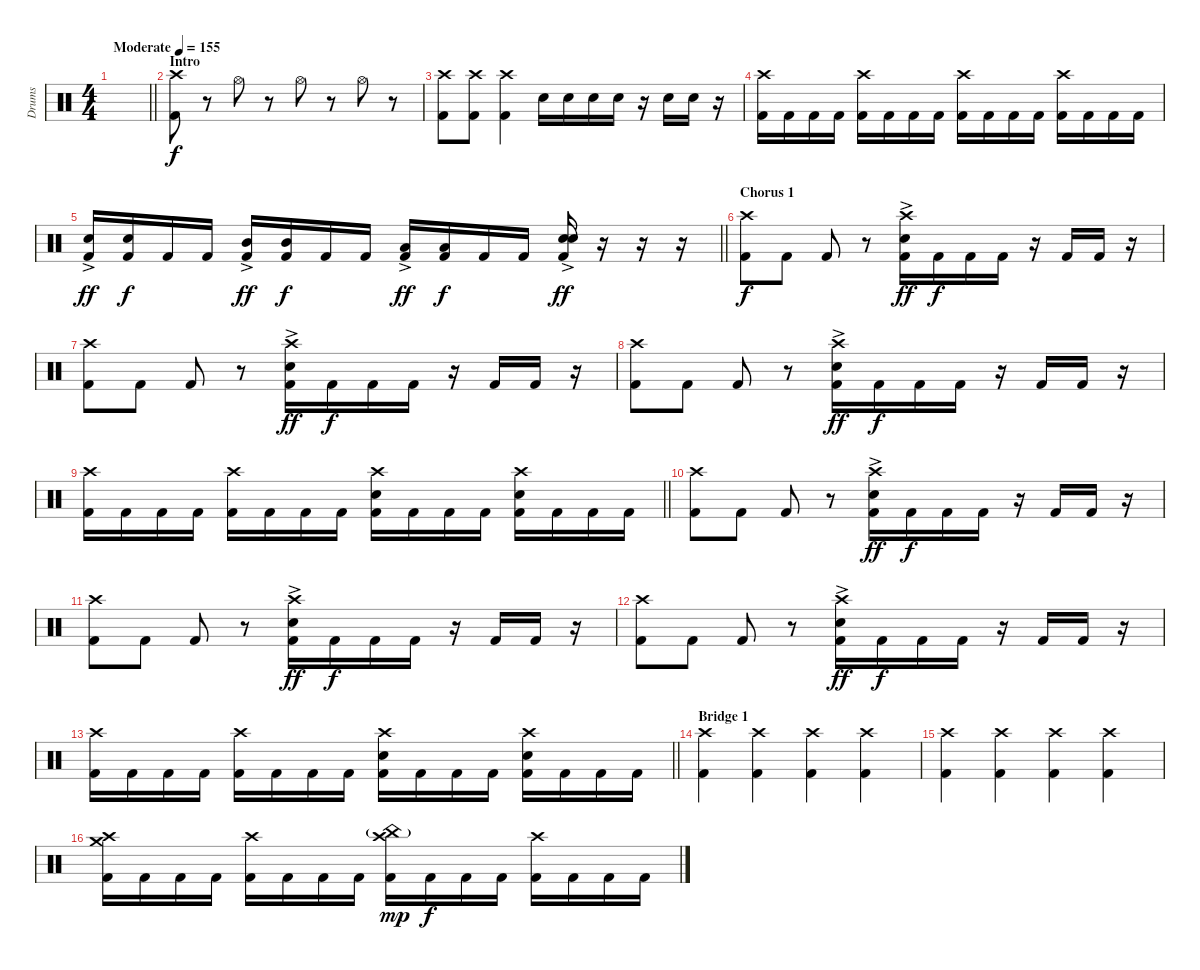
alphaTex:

\track ("Drums" "Drums") {instrument percussion}
\staff {score}
\articulation defaults
\ts (4 4)
\tempo (155 "Moderate")
\clef neutral
\barLineRight lightlight
\ks c
|
\section ("" "Intro")
("Crash high (hit)" "Kick (hit) 2").8 r.8 "Hi-Hat (open)".8 r.8 "Hi-Hat (open)".8 r.8 "Hi-Hat (open)".8 r.8 |
("Crash high (hit)" "Kick (hit) 2").8 ("Crash high (hit)" "Kick (hit) 2").8 ("Crash high (hit)" "Kick (hit) 2").4 "Snare (hit) 2".16 "Snare (hit) 2".16 "Snare (hit) 2".16 "Snare (hit) 2".16 r.16 "Snare (hit) 2".16 "Snare (hit) 2".16 r.16 |
("Crash high (hit)" "Kick (hit) 2").16 "Kick (hit) 2".16 "Kick (hit) 2".16 "Kick (hit) 2".16 ("Crash high (hit)" "Kick (hit) 2").16 "Kick (hit) 2".16 "Kick (hit) 2".16 "Kick (hit) 2".16 ("Crash high (hit)" "Kick (hit) 2").16 "Kick (hit) 2".16 "Kick (hit) 2".16 "Kick (hit) 2".16 ("Crash high (hit)" "Kick (hit) 2").16 "Kick (hit) 2".16 "Kick (hit) 2".16 "Kick (hit) 2".16 |
\barLineRight lightlight
("Snare (hit) 2"{ac} "Kick (hit) 2").16{dy ff} ("Snare (hit) 2" "Kick (hit) 2").16{dy f} "Kick (hit) 2".16 "Kick (hit) 2".16 ("Mid Tom (hit)"{ac} "Kick (hit) 2").16{dy ff} ("Mid Tom (hit)" "Kick (hit) 2").16{dy f} "Kick (hit) 2".16 "Kick (hit) 2".16 ("Low Tom (hit)"{ac} "Kick (hit) 2").16{dy ff} ("Low Tom (hit)" "Kick (hit) 2").16{dy f} "Kick (hit) 2".16 "Kick (hit) 2".16 ("Snare (hit) 2"{ac} "Snare (hit) 2" "Kick (hit) 2").16{dy ff} r.16 r.16 r.16 |
\section ("" "Chorus 1")
("Crash high (hit)" "Kick (hit) 2").8{dy f} "Kick (hit) 2".8 "Kick (hit) 2".8 r.8 ("Crash high (hit)" "Snare (hit) 2"{ac} "Kick (hit) 2").16{dy ff} "Kick (hit) 2".16{dy f} "Kick (hit) 2".16 "Kick (hit) 2".16 r.16 "Kick (hit) 2".16 "Kick (hit) 2".16 r.16 |
("Crash high (hit)" "Kick (hit) 2").8 "Kick (hit) 2".8 "Kick (hit) 2".8 r.8 ("Crash high (hit)" "Snare (hit) 2"{ac} "Kick (hit) 2").16{dy ff} "Kick (hit) 2".16{dy f} "Kick (hit) 2".16 "Kick (hit) 2".16 r.16 "Kick (hit) 2".16 "Kick (hit) 2".16 r.16 |
("Crash high (hit)" "Kick (hit) 2").8 "Kick (hit) 2".8 "Kick (hit) 2".8 r.8 ("Crash high (hit)" "Snare (hit) 2"{ac} "Kick (hit) 2").16{dy ff} "Kick (hit) 2".16{dy f} "Kick (hit) 2".16 "Kick (hit) 2".16 r.16 "Kick (hit) 2".16 "Kick (hit) 2".16 r.16 |
\barLineRight lightlight
("Crash high (hit)" "Kick (hit) 2").16 "Kick (hit) 2".16 "Kick (hit) 2".16 "Kick (hit) 2".16 ("Crash high (hit)" "Kick (hit) 2").16 "Kick (hit) 2".16 "Kick (hit) 2".16 "Kick (hit) 2".16 ("Crash high (hit)" "Snare (hit) 2" "Kick (hit) 2").16 "Kick (hit) 2".16 "Kick (hit) 2".16 "Kick (hit) 2".16 ("Crash high (hit)" "Snare (hit) 2" "Kick (hit) 2").16 "Kick (hit) 2".16 "Kick (hit) 2".16 "Kick (hit) 2".16 |
("Crash high (hit)" "Kick (hit) 2").8 "Kick (hit) 2".8 "Kick (hit) 2".8 r.8 ("Crash high (hit)" "Snare (hit) 2"{ac} "Kick (hit) 2").16{dy ff} "Kick (hit) 2".16{dy f} "Kick (hit) 2".16 "Kick (hit) 2".16 r.16 "Kick (hit) 2".16 "Kick (hit) 2".16 r.16 |
("Crash high (hit)" "Kick (hit) 2").8 "Kick (hit) 2".8 "Kick (hit) 2".8 r.8 ("Crash high (hit)" "Snare (hit) 2"{ac} "Kick (hit) 2").16{dy ff} "Kick (hit) 2".16{dy f} "Kick (hit) 2".16 "Kick (hit) 2".16 r.16 "Kick (hit) 2".16 "Kick (hit) 2".16 r.16 |
("Crash high (hit)" "Kick (hit) 2").8 "Kick (hit) 2".8 "Kick (hit) 2".8 r.8 ("Crash high (hit)" "Snare (hit) 2"{ac} "Kick (hit) 2").16{dy ff} "Kick (hit) 2".16{dy f} "Kick (hit) 2".16 "Kick (hit) 2".16 r.16 "Kick (hit) 2".16 "Kick (hit) 2".16 r.16 |
\barLineRight lightlight
("Crash high (hit)" "Kick (hit) 2").16 "Kick (hit) 2".16 "Kick (hit) 2".16 "Kick (hit) 2".16 ("Crash high (hit)" "Kick (hit) 2").16 "Kick (hit) 2".16 "Kick (hit) 2".16 "Kick (hit) 2".16 ("Crash high (hit)" "Snare (hit) 2" "Kick (hit) 2").16 "Kick (hit) 2".16 "Kick (hit) 2".16 "Kick (hit) 2".16 ("Crash high (hit)" "Snare (hit) 2" "Kick (hit) 2").16 "Kick (hit) 2".16 "Kick (hit) 2".16 "Kick (hit) 2".16 |
\section ("" "Bridge 1")
("Crash high (hit)" "Kick (hit) 2").4 ("Crash high (hit)" "Kick (hit) 2").4 ("Crash high (hit)" "Kick (hit) 2").4 ("Crash high (hit)" "Kick (hit) 2").4 |
("Crash high (hit)" "Kick (hit) 2").4 ("Crash high (hit)" "Kick (hit) 2").4 ("Crash high (hit)" "Kick (hit) 2").4 ("Crash high (hit)" "Kick (hit) 2").4 |
("Crash high (hit)" "Crash medium (hit)" "Kick (hit) 2").16 "Kick (hit) 2".16 "Kick (hit) 2".16 "Kick (hit) 2".16 ("Crash high (hit)" "Kick (hit) 2").16 "Kick (hit) 2".16 "Kick (hit) 2".16 "Kick (hit) 2".16 ("Crash high (hit)" "China (hit)"{g} "Kick (hit) 2").16{dy mp} "Kick (hit) 2".16{dy f} "Kick (hit) 2".16 "Kick (hit) 2".16 ("Crash high (hit)" "Kick (hit) 2").16 "Kick (hit) 2".16 "Kick (hit) 2".16 "Kick (hit) 2".16
